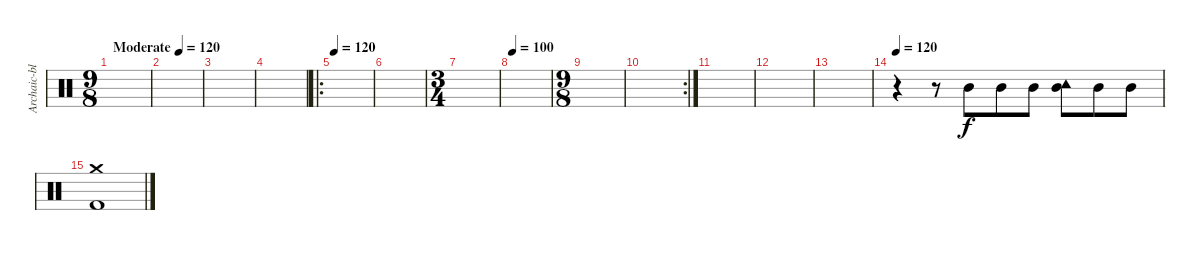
\track ("Archaic-blasting fellow" "Archaic-bl") {instrument percussion}
\staff {score}
\articulation defaults
\ts (9 8)
\tempo (120 "Moderate")
\clef neutral
\ks c
|
|
|
|
\ro
\tempo 120
|
|
\ts (3 4)
|
\tempo 100
|
\ts (9 8)
|
\rc 2
|
|
|
|
\tempo 120
r.4 r.8 "Mid Tom (hit)".8 "Mid Tom (hit)".8 "Mid Tom (hit)".8 ("Tambourine (hit)" "Mid Tom (hit)").8 "Mid Tom (hit)".8 "Mid Tom (hit)".8 |
("Kick (hit) 2" "Crash medium (hit)").1
